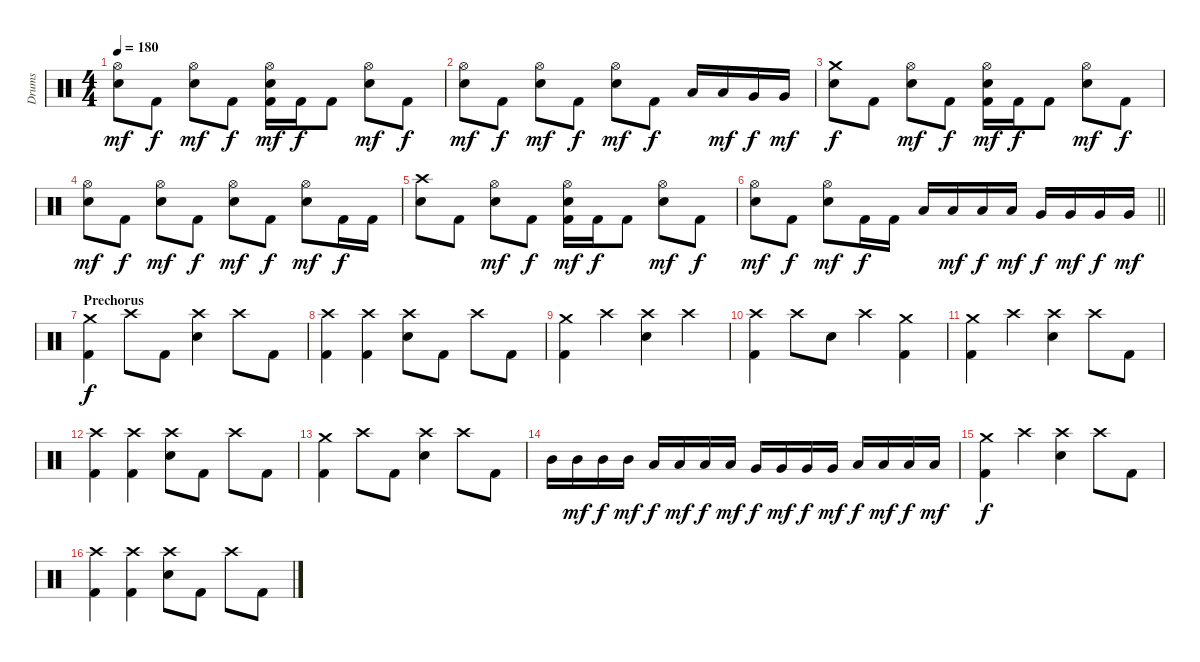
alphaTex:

\track ("Drums" "Drums") {instrument percussion}
\staff {score}
\articulation defaults
\ts (4 4)
\tempo 180
\clef neutral
\ks c
("Hi-Hat (open)" "Electric Snare (hit)").8{dy mf} "Kick (hit) 2".8{dy f} ("Hi-Hat (open)" "Electric Snare (hit)").8{dy mf} "Kick (hit) 2".8{dy f} ("Kick (hit) 2" "Hi-Hat (open)" "Electric Snare (hit)").16{dy mf} "Kick (hit) 2".16{dy f} "Kick (hit) 2".8 ("Hi-Hat (open)" "Electric Snare (hit)").8{dy mf} "Kick (hit) 2".8{dy f} |
("Hi-Hat (open)" "Electric Snare (hit)").8{dy mf} "Kick (hit) 2".8{dy f} ("Hi-Hat (open)" "Electric Snare (hit)").8{dy mf} "Kick (hit) 2".8{dy f} ("Hi-Hat (open)" "Electric Snare (hit)").8{dy mf} "Kick (hit) 2".8{dy f} "Low Tom (hit)".16 "Low Tom (hit)".16{dy mf} "Very Low Tom (hit)".16{dy f} "Very Low Tom (hit)".16{dy mf} |
("Crash medium (hit)" "Electric Snare (hit)").8{dy f} "Kick (hit) 2".8 ("Hi-Hat (open)" "Electric Snare (hit)").8{dy mf} "Kick (hit) 2".8{dy f} ("Kick (hit) 2" "Hi-Hat (open)" "Electric Snare (hit)").16{dy mf} "Kick (hit) 2".16{dy f} "Kick (hit) 2".8 ("Hi-Hat (open)" "Electric Snare (hit)").8{dy mf} "Kick (hit) 2".8{dy f} |
("Hi-Hat (open)" "Electric Snare (hit)").8{dy mf} "Kick (hit) 2".8{dy f} ("Hi-Hat (open)" "Electric Snare (hit)").8{dy mf} "Kick (hit) 2".8{dy f} ("Hi-Hat (open)" "Electric Snare (hit)").8{dy mf} "Kick (hit) 2".8{dy f} ("Hi-Hat (open)" "Electric Snare (hit)").8{dy mf} "Kick (hit) 2".16{dy f} "Kick (hit) 2".16 |
("Crash high (hit)" "Electric Snare (hit)").8 "Kick (hit) 2".8 ("Hi-Hat (open)" "Electric Snare (hit)").8{dy mf} "Kick (hit) 2".8{dy f} ("Kick (hit) 2" "Hi-Hat (open)" "Electric Snare (hit)").16{dy mf} "Kick (hit) 2".16{dy f} "Kick (hit) 2".8 ("Hi-Hat (open)" "Electric Snare (hit)").8{dy mf} "Kick (hit) 2".8{dy f} |
\barLineRight lightlight
("Hi-Hat (open)" "Electric Snare (hit)").8{dy mf} "Kick (hit) 2".8{dy f} ("Hi-Hat (open)" "Electric Snare (hit)").8{dy mf} "Kick (hit) 2".16{dy f} "Kick (hit) 2".16 "Low Tom (hit)".16 "Low Tom (hit)".16{dy mf} "Low Tom (hit)".16{dy f} "Low Tom (hit)".16{dy mf} "Very Low Tom (hit)".16{dy f} "Very Low Tom (hit)".16{dy mf} "Very Low Tom (hit)".16{dy f} "Very Low Tom (hit)".16{dy mf} |
\section ("" "Prechorus")
("Kick (hit) 2" "Crash medium (hit)").4{dy f} "Crash high (hit)".8 "Kick (hit) 2".8 ("Crash high (hit)" "Electric Snare (hit)").4 "Crash high (hit)".8 "Kick (hit) 2".8 |
("Kick (hit) 2" "Crash high (hit)").4 ("Kick (hit) 2" "Crash high (hit)").4 ("Crash high (hit)" "Electric Snare (hit)").8 "Kick (hit) 2".8 "Crash high (hit)".8 "Kick (hit) 2".8 |
("Kick (hit) 2" "Crash medium (hit)").4 "Crash high (hit)".4 ("Crash high (hit)" "Electric Snare (hit)").4 "Crash high (hit)".4 |
("Kick (hit) 2" "Crash high (hit)").4 "Crash high (hit)".8 "Electric Snare (hit)".8 "Crash high (hit)".4 ("Kick (hit) 2" "Crash medium (hit)").4 |
("Kick (hit) 2" "Crash medium (hit)").4 "Crash high (hit)".4 ("Crash high (hit)" "Electric Snare (hit)").4 "Crash high (hit)".8 "Kick (hit) 2".8 |
("Kick (hit) 2" "Crash high (hit)").4 ("Kick (hit) 2" "Crash high (hit)").4 ("Crash high (hit)" "Electric Snare (hit)").8 "Kick (hit) 2".8 "Crash high (hit)".8 "Kick (hit) 2".8 |
("Kick (hit) 2" "Crash medium (hit)").4 "Crash high (hit)".8 "Kick (hit) 2".8 ("Crash high (hit)" "Electric Snare (hit)").4 "Crash high (hit)".8 "Kick (hit) 2".8 |
"Mid Tom (hit)".16 "Mid Tom (hit)".16{dy mf} "Mid Tom (hit)".16{dy f} "Mid Tom (hit)".16{dy mf} "Low Tom (hit)".16{dy f} "Low Tom (hit)".16{dy mf} "Low Tom (hit)".16{dy f} "Low Tom (hit)".16{dy mf} "Very Low Tom (hit)".16{dy f} "Very Low Tom (hit)".16{dy mf} "Very Low Tom (hit)".16{dy f} "Very Low Tom (hit)".16{dy mf} "Low Floor Tom (hit)".16{dy f} "Low Floor Tom (hit)".16{dy mf} "Low Floor Tom (hit)".16{dy f} "Low Floor Tom (hit)".16{dy mf} |
("Kick (hit) 2" "Crash medium (hit)").4{dy f} "Crash high (hit)".4 ("Crash high (hit)" "Electric Snare (hit)").4 "Crash high (hit)".8 "Kick (hit) 2".8 |
("Kick (hit) 2" "Crash high (hit)").4 ("Kick (hit) 2" "Crash high (hit)").4 ("Crash high (hit)" "Electric Snare (hit)").8 "Kick (hit) 2".8 "Crash high (hit)".8 "Kick (hit) 2".8
